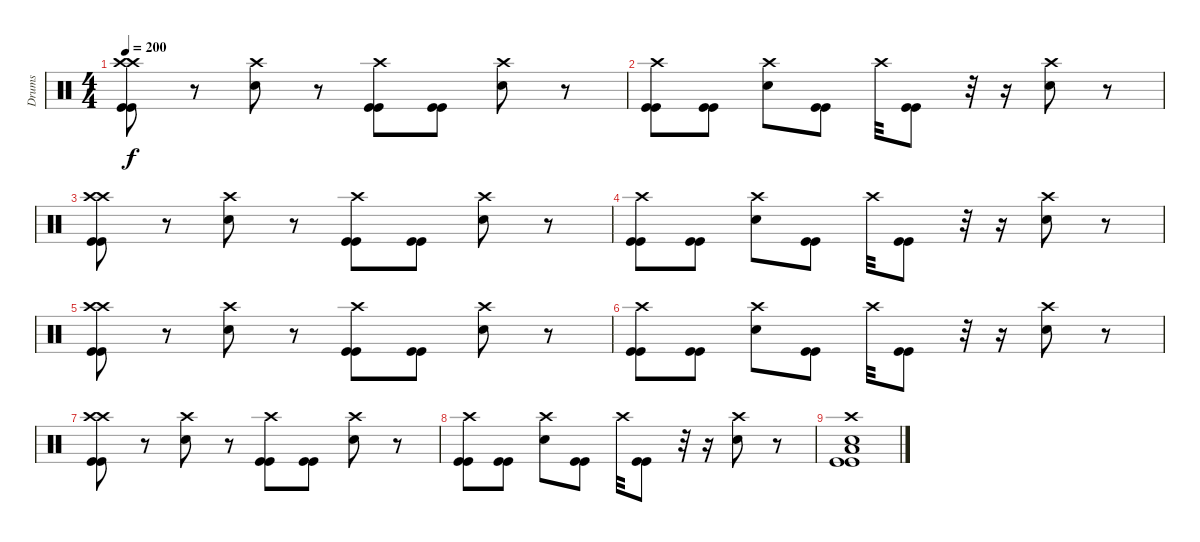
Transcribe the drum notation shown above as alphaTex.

\track ("Drums" "Drums") {instrument percussion}
\staff {score}
\articulation defaults
\ts (4 4)
\tempo 200
\clef neutral
\ks c
("Crash high (hit)" "Crash high (hit)" "Kick (hit)" "Kick (hit)").8{dy f} r.8 ("Crash high (hit)" "Electric Snare (hit)").8 r.8 ("Crash high (hit)" "Kick (hit)" "Kick (hit)").8 ("Kick (hit)" "Kick (hit)").8 ("Crash high (hit)" "Electric Snare (hit)").8 r.8 |
("Crash high (hit)" "Kick (hit)" "Kick (hit)").8 ("Kick (hit)" "Kick (hit)").8 ("Crash high (hit)" "Electric Snare (hit)").8 ("Kick (hit)" "Kick (hit)").8 "Crash high (hit)".32 ("Kick (hit)" "Kick (hit)").8 r.32 r.16 ("Crash high (hit)" "Electric Snare (hit)").8 r.8 |
("Crash high (hit)" "Crash high (hit)" "Kick (hit)" "Kick (hit)").8 r.8 ("Crash high (hit)" "Electric Snare (hit)").8 r.8 ("Crash high (hit)" "Kick (hit)" "Kick (hit)").8 ("Kick (hit)" "Kick (hit)").8 ("Crash high (hit)" "Electric Snare (hit)").8 r.8 |
("Crash high (hit)" "Kick (hit)" "Kick (hit)").8 ("Kick (hit)" "Kick (hit)").8 ("Crash high (hit)" "Electric Snare (hit)").8 ("Kick (hit)" "Kick (hit)").8 "Crash high (hit)".32 ("Kick (hit)" "Kick (hit)").8 r.32 r.16 ("Crash high (hit)" "Electric Snare (hit)").8 r.8 |
("Crash high (hit)" "Crash high (hit)" "Kick (hit)" "Kick (hit)").8 r.8 ("Crash high (hit)" "Electric Snare (hit)").8 r.8 ("Crash high (hit)" "Kick (hit)" "Kick (hit)").8 ("Kick (hit)" "Kick (hit)").8 ("Crash high (hit)" "Electric Snare (hit)").8 r.8 |
("Crash high (hit)" "Kick (hit)" "Kick (hit)").8 ("Kick (hit)" "Kick (hit)").8 ("Crash high (hit)" "Electric Snare (hit)").8 ("Kick (hit)" "Kick (hit)").8 "Crash high (hit)".32 ("Kick (hit)" "Kick (hit)").8 r.32 r.16 ("Crash high (hit)" "Electric Snare (hit)").8 r.8 |
("Crash high (hit)" "Crash high (hit)" "Kick (hit)" "Kick (hit)").8 r.8 ("Crash high (hit)" "Electric Snare (hit)").8 r.8 ("Crash high (hit)" "Kick (hit)" "Kick (hit)").8 ("Kick (hit)" "Kick (hit)").8 ("Crash high (hit)" "Electric Snare (hit)").8 r.8 |
("Crash high (hit)" "Kick (hit)" "Kick (hit)").8 ("Kick (hit)" "Kick (hit)").8 ("Crash high (hit)" "Electric Snare (hit)").8 ("Kick (hit)" "Kick (hit)").8 "Crash high (hit)".32 ("Kick (hit)" "Kick (hit)").8 r.32 r.16 ("Crash high (hit)" "Electric Snare (hit)").8 r.8 |
("Crash high (hit)" "Low Tom (hit)" "Electric Snare (hit)" "Kick (hit)" "Kick (hit)").1
